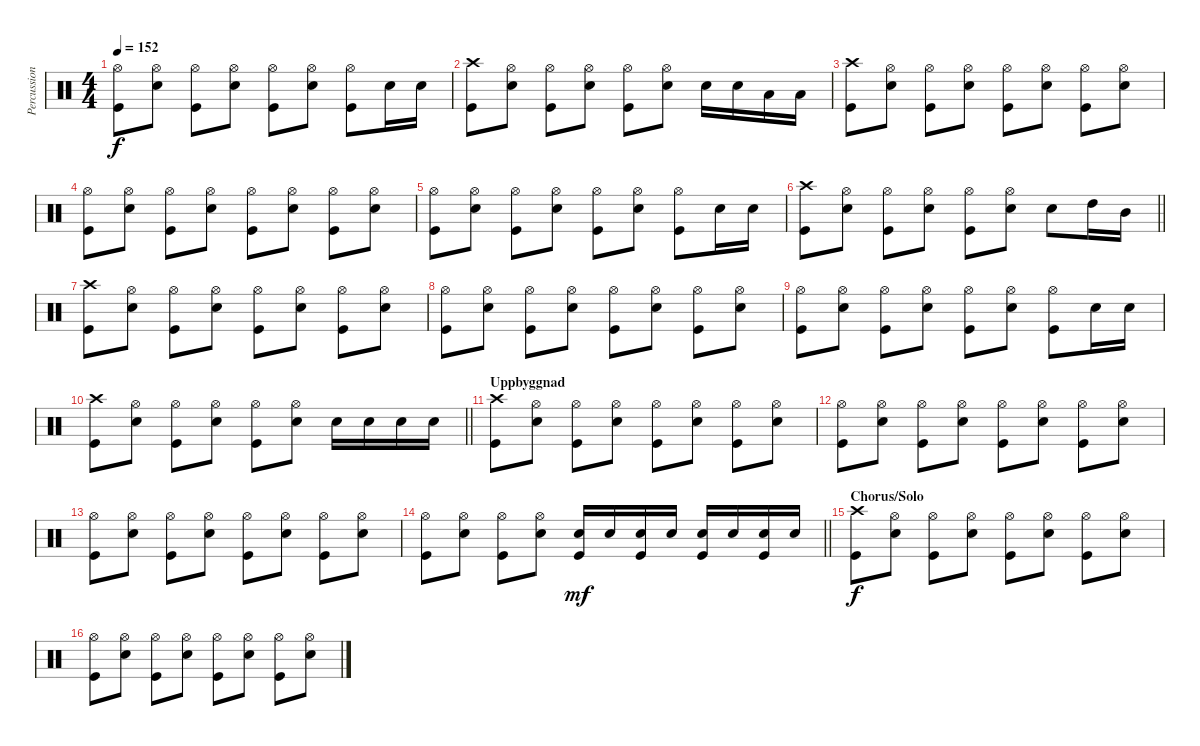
\track ("Percussion" "Percussion") {instrument percussion}
\staff {score}
\articulation defaults
\ts (4 4)
\tempo 152
\clef neutral
\ks c
("Hi-Hat (open)" "Kick (hit)").8{dy f} ("Hi-Hat (open)" "Snare (hit) 2").8 ("Hi-Hat (open)" "Kick (hit)").8 ("Hi-Hat (open)" "Snare (hit) 2").8 ("Hi-Hat (open)" "Kick (hit)").8 ("Hi-Hat (open)" "Snare (hit) 2").8 ("Hi-Hat (open)" "Kick (hit)").8 "Snare (hit) 2".16 "Snare (hit) 2".16 |
("Crash high (hit)" "Kick (hit)").8 ("Hi-Hat (open)" "Snare (hit) 2").8 ("Hi-Hat (open)" "Kick (hit)").8 ("Hi-Hat (open)" "Snare (hit) 2").8 ("Hi-Hat (open)" "Kick (hit)").8 ("Hi-Hat (open)" "Snare (hit) 2").8 "Snare (hit) 2".16 "Snare (hit) 2".16 "Low Tom (hit)".16 "Low Tom (hit)".16 |
("Crash high (hit)" "Kick (hit)").8 ("Hi-Hat (open)" "Snare (hit) 2").8 ("Hi-Hat (open)" "Kick (hit)").8 ("Hi-Hat (open)" "Snare (hit) 2").8 ("Hi-Hat (open)" "Kick (hit)").8 ("Hi-Hat (open)" "Snare (hit) 2").8 ("Hi-Hat (open)" "Kick (hit)").8 ("Hi-Hat (open)" "Snare (hit) 2").8 |
("Hi-Hat (open)" "Kick (hit)").8 ("Hi-Hat (open)" "Snare (hit) 2").8 ("Hi-Hat (open)" "Kick (hit)").8 ("Hi-Hat (open)" "Snare (hit) 2").8 ("Hi-Hat (open)" "Kick (hit)").8 ("Hi-Hat (open)" "Snare (hit) 2").8 ("Hi-Hat (open)" "Kick (hit)").8 ("Hi-Hat (open)" "Snare (hit) 2").8 |
("Hi-Hat (open)" "Kick (hit)").8 ("Hi-Hat (open)" "Snare (hit) 2").8 ("Hi-Hat (open)" "Kick (hit)").8 ("Hi-Hat (open)" "Snare (hit) 2").8 ("Hi-Hat (open)" "Kick (hit)").8 ("Hi-Hat (open)" "Snare (hit) 2").8 ("Hi-Hat (open)" "Kick (hit)").8 "Snare (hit) 2".16 "Snare (hit) 2".16 |
\barLineRight lightlight
("Crash high (hit)" "Kick (hit)").8 ("Hi-Hat (open)" "Snare (hit) 2").8 ("Hi-Hat (open)" "Kick (hit)").8 ("Hi-Hat (open)" "Snare (hit) 2").8 ("Hi-Hat (open)" "Kick (hit)").8 ("Hi-Hat (open)" "Snare (hit) 2").8 "Snare (hit) 2".8 "High Tom (hit)".16 "Mid Tom (hit)".16 |
("Crash high (hit)" "Kick (hit)").8 ("Hi-Hat (open)" "Snare (hit) 2").8 ("Hi-Hat (open)" "Kick (hit)").8 ("Hi-Hat (open)" "Snare (hit) 2").8 ("Hi-Hat (open)" "Kick (hit)").8 ("Hi-Hat (open)" "Snare (hit) 2").8 ("Hi-Hat (open)" "Kick (hit)").8 ("Hi-Hat (open)" "Snare (hit) 2").8 |
("Hi-Hat (open)" "Kick (hit)").8 ("Hi-Hat (open)" "Snare (hit) 2").8 ("Hi-Hat (open)" "Kick (hit)").8 ("Hi-Hat (open)" "Snare (hit) 2").8 ("Hi-Hat (open)" "Kick (hit)").8 ("Hi-Hat (open)" "Snare (hit) 2").8 ("Hi-Hat (open)" "Kick (hit)").8 ("Hi-Hat (open)" "Snare (hit) 2").8 |
("Hi-Hat (open)" "Kick (hit)").8 ("Hi-Hat (open)" "Snare (hit) 2").8 ("Hi-Hat (open)" "Kick (hit)").8 ("Hi-Hat (open)" "Snare (hit) 2").8 ("Hi-Hat (open)" "Kick (hit)").8 ("Hi-Hat (open)" "Snare (hit) 2").8 ("Hi-Hat (open)" "Kick (hit)").8 "Snare (hit) 2".16 "Snare (hit) 2".16 |
\barLineRight lightlight
("Crash high (hit)" "Kick (hit)").8 ("Hi-Hat (open)" "Snare (hit) 2").8 ("Hi-Hat (open)" "Kick (hit)").8 ("Hi-Hat (open)" "Snare (hit) 2").8 ("Hi-Hat (open)" "Kick (hit)").8 ("Hi-Hat (open)" "Snare (hit) 2").8 "Snare (hit) 2".16 "Snare (hit) 2".16 "Snare (hit) 2".16 "Snare (hit) 2".16 |
\section ("" "Uppbyggnad")
("Crash high (hit)" "Kick (hit)").8 ("Hi-Hat (open)" "Snare (hit) 2").8 ("Hi-Hat (open)" "Kick (hit)").8 ("Hi-Hat (open)" "Snare (hit) 2").8 ("Hi-Hat (open)" "Kick (hit)").8 ("Hi-Hat (open)" "Snare (hit) 2").8 ("Hi-Hat (open)" "Kick (hit)").8 ("Hi-Hat (open)" "Snare (hit) 2").8 |
("Hi-Hat (open)" "Kick (hit)").8 ("Hi-Hat (open)" "Snare (hit) 2").8 ("Hi-Hat (open)" "Kick (hit)").8 ("Hi-Hat (open)" "Snare (hit) 2").8 ("Hi-Hat (open)" "Kick (hit)").8 ("Hi-Hat (open)" "Snare (hit) 2").8 ("Hi-Hat (open)" "Kick (hit)").8 ("Hi-Hat (open)" "Snare (hit) 2").8 |
("Hi-Hat (open)" "Kick (hit)").8 ("Hi-Hat (open)" "Snare (hit) 2").8 ("Hi-Hat (open)" "Kick (hit)").8 ("Hi-Hat (open)" "Snare (hit) 2").8 ("Hi-Hat (open)" "Kick (hit)").8 ("Hi-Hat (open)" "Snare (hit) 2").8 ("Hi-Hat (open)" "Kick (hit)").8 ("Hi-Hat (open)" "Snare (hit) 2").8 |
\barLineRight lightlight
("Hi-Hat (open)" "Kick (hit)").8 ("Hi-Hat (open)" "Snare (hit) 2").8 ("Hi-Hat (open)" "Kick (hit)").8 ("Hi-Hat (open)" "Snare (hit) 2").8 ("Snare (hit) 2" "Kick (hit)").16{dy mf} "Snare (hit) 2".16 ("Snare (hit) 2" "Kick (hit)").16 "Snare (hit) 2".16 ("Snare (hit) 2" "Kick (hit)").16 "Snare (hit) 2".16 ("Snare (hit) 2" "Kick (hit)").16 "Snare (hit) 2".16 |
\section ("" "Chorus/Solo")
("Crash high (hit)" "Kick (hit)").8{dy f} ("Hi-Hat (open)" "Snare (hit) 2").8 ("Hi-Hat (open)" "Kick (hit)").8 ("Hi-Hat (open)" "Snare (hit) 2").8 ("Hi-Hat (open)" "Kick (hit)").8 ("Hi-Hat (open)" "Snare (hit) 2").8 ("Hi-Hat (open)" "Kick (hit)").8 ("Hi-Hat (open)" "Snare (hit) 2").8 |
("Hi-Hat (open)" "Kick (hit)").8 ("Hi-Hat (open)" "Snare (hit) 2").8 ("Hi-Hat (open)" "Kick (hit)").8 ("Hi-Hat (open)" "Snare (hit) 2").8 ("Hi-Hat (open)" "Kick (hit)").8 ("Hi-Hat (open)" "Snare (hit) 2").8 ("Hi-Hat (open)" "Kick (hit)").8 ("Hi-Hat (open)" "Snare (hit) 2").8
